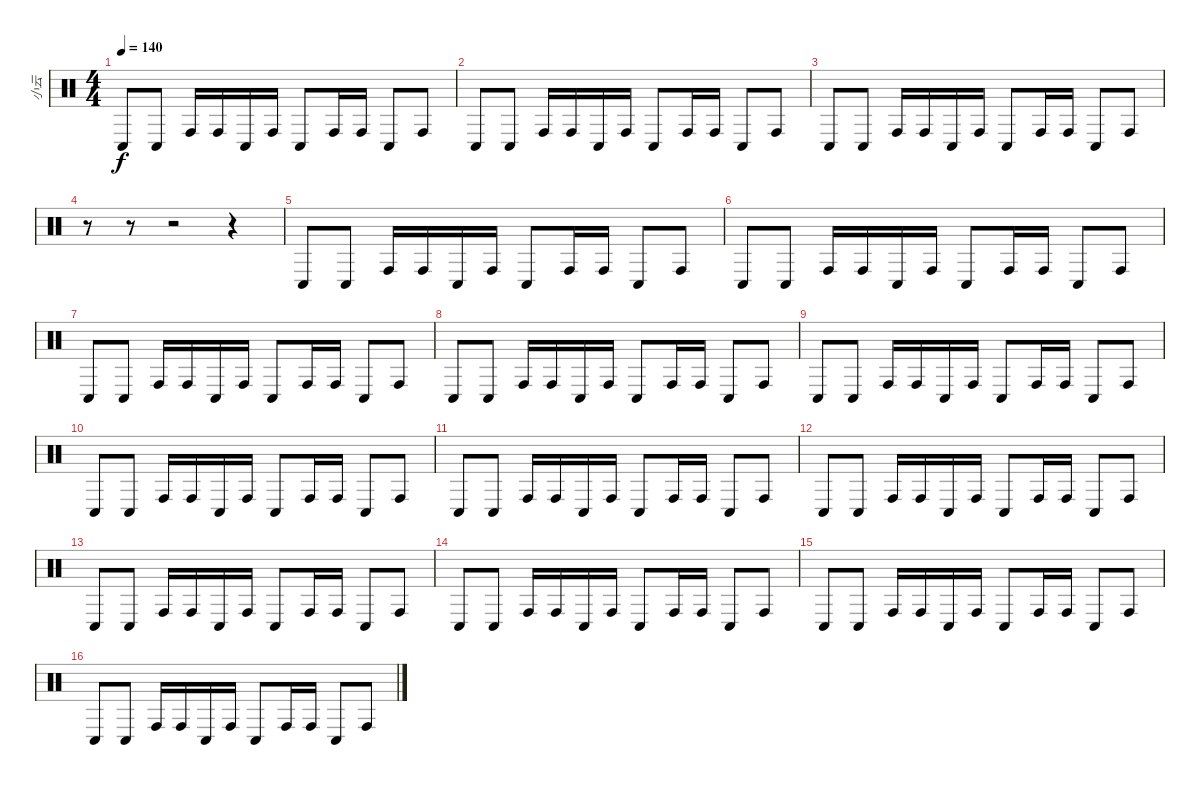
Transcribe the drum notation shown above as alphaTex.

\track ("小云" "小云") {instrument percussion}
\staff {score}
\articulation defaults
\ts (4 4)
\tempo 140
\clef neutral
\ks c "Conga low (hit)".8{dy f} "Conga low (hit)".8 "Conga high (hit)".16 "Conga high (hit)".16 "Conga low (hit)".16 "Conga high (hit)".16 "Conga low (hit)".8 "Conga high (hit)".16 "Conga high (hit)".16 "Conga low (hit)".8 "Conga high (hit)".8
|
"Conga low (hit)".8 "Conga low (hit)".8 "Conga high (hit)".16 "Conga high (hit)".16 "Conga low (hit)".16 "Conga high (hit)".16 "Conga low (hit)".8 "Conga high (hit)".16 "Conga high (hit)".16 "Conga low (hit)".8 "Conga high (hit)".8 |
"Conga low (hit)".8 "Conga low (hit)".8 "Conga high (hit)".16 "Conga high (hit)".16 "Conga low (hit)".16 "Conga high (hit)".16 "Conga low (hit)".8 "Conga high (hit)".16 "Conga high (hit)".16 "Conga low (hit)".8 "Conga high (hit)".8 |
r.8 r.8 r.2 r.4 |
"Conga low (hit)".8 "Conga low (hit)".8 "Conga high (hit)".16 "Conga high (hit)".16 "Conga low (hit)".16 "Conga high (hit)".16 "Conga low (hit)".8 "Conga high (hit)".16 "Conga high (hit)".16 "Conga low (hit)".8 "Conga high (hit)".8 |
"Conga low (hit)".8 "Conga low (hit)".8 "Conga high (hit)".16 "Conga high (hit)".16 "Conga low (hit)".16 "Conga high (hit)".16 "Conga low (hit)".8 "Conga high (hit)".16 "Conga high (hit)".16 "Conga low (hit)".8 "Conga high (hit)".8 |
"Conga low (hit)".8 "Conga low (hit)".8 "Conga high (hit)".16 "Conga high (hit)".16 "Conga low (hit)".16 "Conga high (hit)".16 "Conga low (hit)".8 "Conga high (hit)".16 "Conga high (hit)".16 "Conga low (hit)".8 "Conga high (hit)".8 |
"Conga low (hit)".8 "Conga low (hit)".8 "Conga high (hit)".16 "Conga high (hit)".16 "Conga low (hit)".16 "Conga high (hit)".16 "Conga low (hit)".8 "Conga high (hit)".16 "Conga high (hit)".16 "Conga low (hit)".8 "Conga high (hit)".8 |
"Conga low (hit)".8 "Conga low (hit)".8 "Conga high (hit)".16 "Conga high (hit)".16 "Conga low (hit)".16 "Conga high (hit)".16 "Conga low (hit)".8 "Conga high (hit)".16 "Conga high (hit)".16 "Conga low (hit)".8 "Conga high (hit)".8 |
"Conga low (hit)".8 "Conga low (hit)".8 "Conga high (hit)".16 "Conga high (hit)".16 "Conga low (hit)".16 "Conga high (hit)".16 "Conga low (hit)".8 "Conga high (hit)".16 "Conga high (hit)".16 "Conga low (hit)".8 "Conga high (hit)".8 |
"Conga low (hit)".8 "Conga low (hit)".8 "Conga high (hit)".16 "Conga high (hit)".16 "Conga low (hit)".16 "Conga high (hit)".16 "Conga low (hit)".8 "Conga high (hit)".16 "Conga high (hit)".16 "Conga low (hit)".8 "Conga high (hit)".8 |
"Conga low (hit)".8 "Conga low (hit)".8 "Conga high (hit)".16 "Conga high (hit)".16 "Conga low (hit)".16 "Conga high (hit)".16 "Conga low (hit)".8 "Conga high (hit)".16 "Conga high (hit)".16 "Conga low (hit)".8 "Conga high (hit)".8 |
"Conga low (hit)".8 "Conga low (hit)".8 "Conga high (hit)".16 "Conga high (hit)".16 "Conga low (hit)".16 "Conga high (hit)".16 "Conga low (hit)".8 "Conga high (hit)".16 "Conga high (hit)".16 "Conga low (hit)".8 "Conga high (hit)".8 |
"Conga low (hit)".8 "Conga low (hit)".8 "Conga high (hit)".16 "Conga high (hit)".16 "Conga low (hit)".16 "Conga high (hit)".16 "Conga low (hit)".8 "Conga high (hit)".16 "Conga high (hit)".16 "Conga low (hit)".8 "Conga high (hit)".8 |
"Conga low (hit)".8 "Conga low (hit)".8 "Conga high (hit)".16 "Conga high (hit)".16 "Conga low (hit)".16 "Conga high (hit)".16 "Conga low (hit)".8 "Conga high (hit)".16 "Conga high (hit)".16 "Conga low (hit)".8 "Conga high (hit)".8 |
"Conga low (hit)".8 "Conga low (hit)".8 "Conga high (hit)".16 "Conga high (hit)".16 "Conga low (hit)".16 "Conga high (hit)".16 "Conga low (hit)".8 "Conga high (hit)".16 "Conga high (hit)".16 "Conga low (hit)".8 "Conga high (hit)".8
